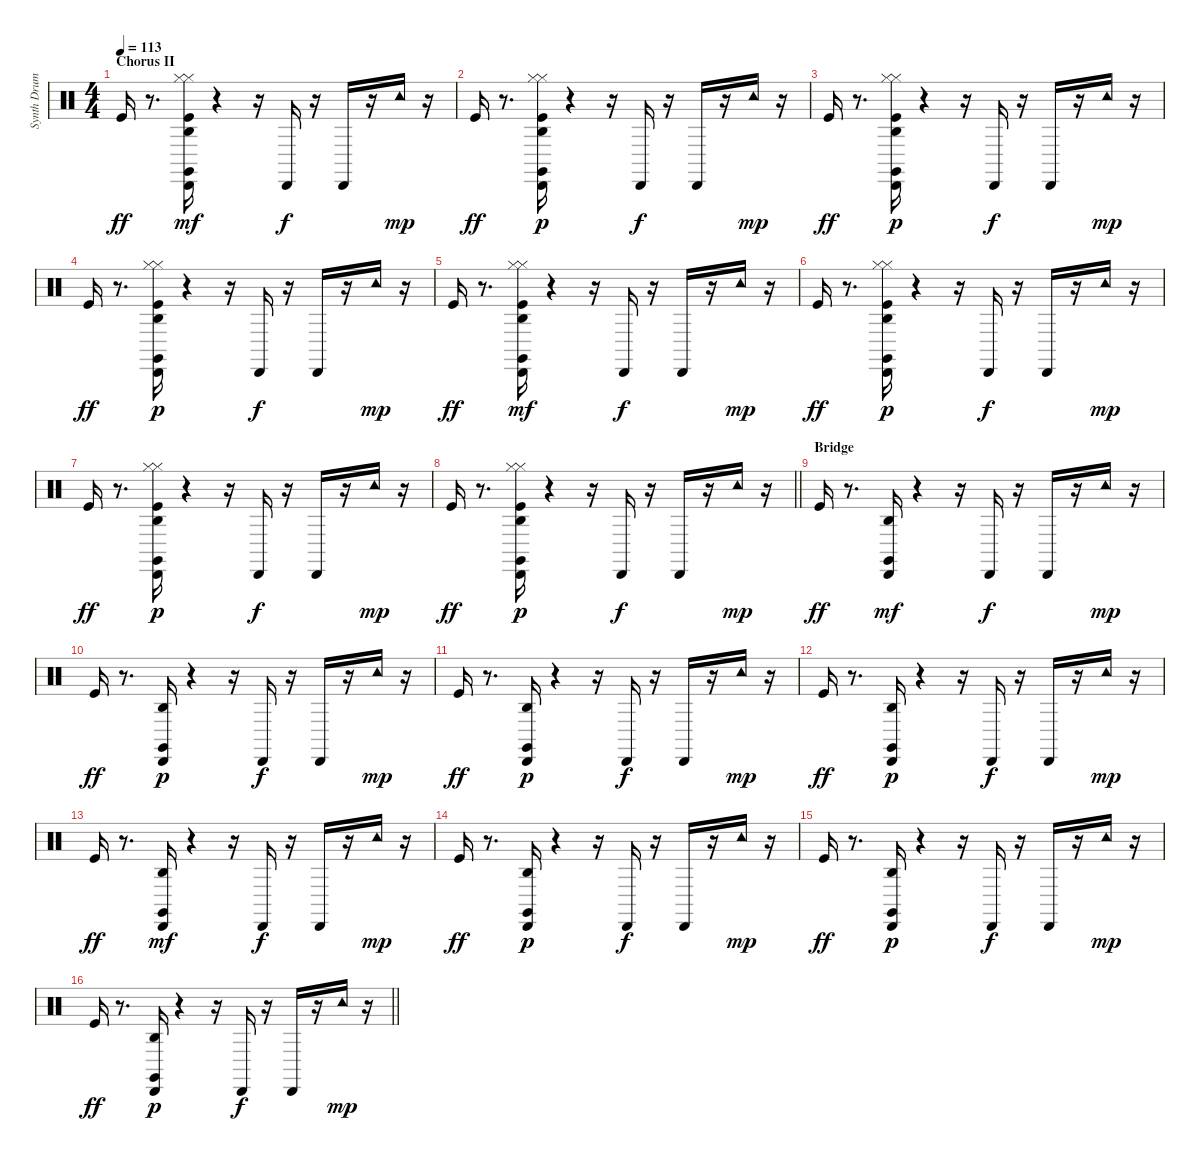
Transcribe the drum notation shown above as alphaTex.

\track ("Synth Drums" "Synth Drum") {instrument percussion}
\staff {score}
\articulation defaults
\ts (4 4)
\section ("" "Chorus II")
\tempo 113
\clef neutral
\ks c "Kick (hit)".16{dy ff}
r.8{d} ("Agogo high (hit)" "Claves (hit)" "Cabasa (hit)" "Kick (hit)" "Hi-Hat (closed)" "Hi-Hat (closed)").16{dy mf} r.4 r.16 "Cabasa (hit)".16{dy f} r.16 "Cabasa (hit)".16 r.16 "Tambourine (hit)".16{dy mp} r.16 |
"Kick (hit)".16{dy ff} r.8{d} ("Cabasa (hit)" "Claves (hit)" "Agogo high (hit)" "Kick (hit)" "Hi-Hat (closed)" "Hi-Hat (closed)").16{dy p} r.4 r.16 "Cabasa (hit)".16{dy f} r.16 "Cabasa (hit)".16 r.16 "Tambourine (hit)".16{dy mp} r.16 |
"Kick (hit)".16{dy ff} r.8{d} ("Cabasa (hit)" "Claves (hit)" "Agogo high (hit)" "Kick (hit)" "Hi-Hat (closed)" "Hi-Hat (closed)").16{dy p} r.4 r.16 "Cabasa (hit)".16{dy f} r.16 "Cabasa (hit)".16 r.16 "Tambourine (hit)".16{dy mp} r.16 |
"Kick (hit)".16{dy ff} r.8{d} ("Cabasa (hit)" "Claves (hit)" "Agogo high (hit)" "Kick (hit)" "Hi-Hat (closed)" "Hi-Hat (closed)").16{dy p} r.4 r.16 "Cabasa (hit)".16{dy f} r.16 "Cabasa (hit)".16 r.16 "Tambourine (hit)".16{dy mp} r.16 |
"Kick (hit)".16{dy ff} r.8{d} ("Agogo high (hit)" "Claves (hit)" "Cabasa (hit)" "Kick (hit)" "Hi-Hat (closed)" "Hi-Hat (closed)").16{dy mf} r.4 r.16 "Cabasa (hit)".16{dy f} r.16 "Cabasa (hit)".16 r.16 "Tambourine (hit)".16{dy mp} r.16 |
"Kick (hit)".16{dy ff} r.8{d} ("Cabasa (hit)" "Claves (hit)" "Agogo high (hit)" "Kick (hit)" "Hi-Hat (closed)" "Hi-Hat (closed)").16{dy p} r.4 r.16 "Cabasa (hit)".16{dy f} r.16 "Cabasa (hit)".16 r.16 "Tambourine (hit)".16{dy mp} r.16 |
"Kick (hit)".16{dy ff} r.8{d} ("Cabasa (hit)" "Claves (hit)" "Agogo high (hit)" "Kick (hit)" "Hi-Hat (closed)" "Hi-Hat (closed)").16{dy p} r.4 r.16 "Cabasa (hit)".16{dy f} r.16 "Cabasa (hit)".16 r.16 "Tambourine (hit)".16{dy mp} r.16 |
\barLineRight lightlight "Kick (hit)".16{dy ff}
r.8{d} ("Cabasa (hit)" "Claves (hit)" "Agogo high (hit)" "Kick (hit)" "Hi-Hat (closed)" "Hi-Hat (closed)").16{dy p} r.4 r.16 "Cabasa (hit)".16{dy f} r.16 "Cabasa (hit)".16 r.16 "Tambourine (hit)".16{dy mp} r.16 |
\section ("" "Bridge")
"Kick (hit)".16{dy ff} r.8{d} ("Agogo high (hit)" "Claves (hit)" "Cabasa (hit)").16{dy mf} r.4 r.16 "Cabasa (hit)".16{dy f} r.16 "Cabasa (hit)".16 r.16 "Tambourine (hit)".16{dy mp} r.16 |
"Kick (hit)".16{dy ff} r.8{d} ("Cabasa (hit)" "Claves (hit)" "Agogo high (hit)").16{dy p} r.4 r.16 "Cabasa (hit)".16{dy f} r.16 "Cabasa (hit)".16 r.16 "Tambourine (hit)".16{dy mp} r.16 |
"Kick (hit)".16{dy ff} r.8{d} ("Cabasa (hit)" "Claves (hit)" "Agogo high (hit)").16{dy p} r.4 r.16 "Cabasa (hit)".16{dy f} r.16 "Cabasa (hit)".16 r.16 "Tambourine (hit)".16{dy mp} r.16 |
"Kick (hit)".16{dy ff} r.8{d} ("Cabasa (hit)" "Claves (hit)" "Agogo high (hit)").16{dy p} r.4 r.16 "Cabasa (hit)".16{dy f} r.16 "Cabasa (hit)".16 r.16 "Tambourine (hit)".16{dy mp} r.16 |
"Kick (hit)".16{dy ff volume 10} r.8{d} ("Agogo high (hit)" "Claves (hit)" "Cabasa (hit)").16{dy mf} r.4 r.16 "Cabasa (hit)".16{dy f} r.16 "Cabasa (hit)".16 r.16 "Tambourine (hit)".16{dy mp} r.16 |
"Kick (hit)".16{dy ff} r.8{d} ("Cabasa (hit)" "Claves (hit)" "Agogo high (hit)").16{dy p} r.4 r.16 "Cabasa (hit)".16{dy f} r.16 "Cabasa (hit)".16 r.16 "Tambourine (hit)".16{dy mp} r.16 |
"Kick (hit)".16{dy ff} r.8{d} ("Cabasa (hit)" "Claves (hit)" "Agogo high (hit)").16{dy p} r.4 r.16 "Cabasa (hit)".16{dy f} r.16 "Cabasa (hit)".16 r.16 "Tambourine (hit)".16{dy mp} r.16 |
\barLineRight lightlight "Kick (hit)".16{dy ff}
r.8{d} ("Cabasa (hit)" "Claves (hit)" "Agogo high (hit)").16{dy p} r.4 r.16 "Cabasa (hit)".16{dy f} r.16 "Cabasa (hit)".16 r.16 "Tambourine (hit)".16{dy mp} r.16
